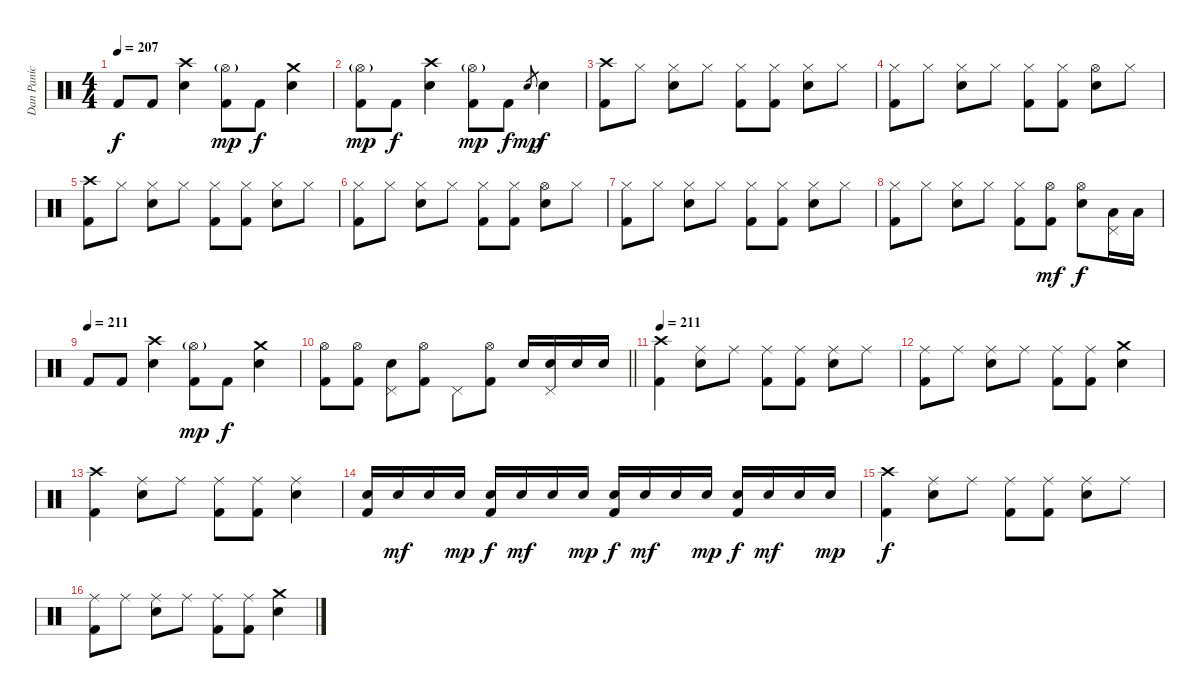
\track ("Dan Panic" "Dan Panic") {instrument percussion}
\staff {score}
\articulation defaults
\ts (4 4)
\tempo 207
\clef neutral
\ks c "Kick (hit) 2".8{dy f} "Kick (hit) 2".8
("Crash high (hit)" "Electric Snare (hit)").4 ("Hi-Hat (open)"{g} "Kick (hit) 2").8{dy mp} "Kick (hit) 2".8{dy f} ("Crash medium (hit)" "Electric Snare (hit)").4 |
("Hi-Hat (open)"{g} "Kick (hit) 2").8{dy mp} "Kick (hit) 2".8{dy f} ("Crash high (hit)" "Electric Snare (hit)").4 ("Hi-Hat (open)"{g} "Kick (hit) 2").8{dy mp} "Kick (hit) 2".8{dy f} "Electric Snare (hit)".8{gr dy mp} "Electric Snare (hit)".4{dy f} |
("Crash high (hit)" "Kick (hit) 2").8 "Hi-Hat (closed)".8 ("Hi-Hat (closed)" "Electric Snare (hit)").8 "Hi-Hat (closed)".8 ("Hi-Hat (closed)" "Kick (hit) 2").8 ("Hi-Hat (closed)" "Kick (hit) 2").8 ("Hi-Hat (closed)" "Electric Snare (hit)").8 "Hi-Hat (closed)".8 |
("Hi-Hat (closed)" "Kick (hit) 2").8 "Hi-Hat (closed)".8 ("Hi-Hat (closed)" "Electric Snare (hit)").8 "Hi-Hat (closed)".8 ("Hi-Hat (closed)" "Kick (hit) 2").8 ("Hi-Hat (closed)" "Kick (hit) 2").8 ("Hi-Hat (open)" "Electric Snare (hit)").8 "Hi-Hat (closed)".8 |
("Crash high (hit)" "Kick (hit) 2").8 "Hi-Hat (closed)".8 ("Hi-Hat (closed)" "Electric Snare (hit)").8 "Hi-Hat (closed)".8 ("Hi-Hat (closed)" "Kick (hit) 2").8 ("Hi-Hat (closed)" "Kick (hit) 2").8 ("Hi-Hat (closed)" "Electric Snare (hit)").8 "Hi-Hat (closed)".8 |
("Hi-Hat (closed)" "Kick (hit) 2").8 "Hi-Hat (closed)".8 ("Hi-Hat (closed)" "Electric Snare (hit)").8 "Hi-Hat (closed)".8 ("Hi-Hat (closed)" "Kick (hit) 2").8 ("Hi-Hat (closed)" "Kick (hit) 2").8 ("Hi-Hat (open)" "Electric Snare (hit)").8 "Hi-Hat (closed)".8 |
("Hi-Hat (closed)" "Kick (hit) 2").8 "Hi-Hat (closed)".8 ("Hi-Hat (closed)" "Electric Snare (hit)").8 "Hi-Hat (closed)".8 ("Hi-Hat (closed)" "Kick (hit) 2").8 ("Hi-Hat (closed)" "Kick (hit) 2").8 ("Hi-Hat (closed)" "Electric Snare (hit)").8 "Hi-Hat (closed)".8 |
("Hi-Hat (closed)" "Kick (hit) 2").8 "Hi-Hat (closed)".8 ("Hi-Hat (closed)" "Electric Snare (hit)").8 "Hi-Hat (closed)".8 ("Hi-Hat (closed)" "Kick (hit) 2").8 ("Hi-Hat (open)" "Kick (hit) 2").8{dy mf} ("Hi-Hat (open)" "Electric Snare (hit)").8{dy f} ("Pedal Hi-Hat (hit)" "Low Tom (hit)").16 "Low Floor Tom (hit)".16 |
\tempo (211)
"Kick (hit) 2".8 "Kick (hit) 2".8 ("Crash high (hit)" "Electric Snare (hit)").4 ("Hi-Hat (open)"{g} "Kick (hit) 2").8{dy mp} "Kick (hit) 2".8{dy f} ("Crash medium (hit)" "Electric Snare (hit)").4 |
\barLineRight lightlight
("Hi-Hat (open)" "Kick (hit) 2").8 ("Hi-Hat (open)" "Kick (hit) 2").8 ("Pedal Hi-Hat (hit)" "Electric Snare (hit)").8 ("Hi-Hat (open)" "Kick (hit) 2").8 "Pedal Hi-Hat (hit)".8 ("Hi-Hat (open)" "Kick (hit) 2").8 "Electric Snare (hit)".16 ("Pedal Hi-Hat (hit)" "Electric Snare (hit)").16 "Electric Snare (hit)".16 "Electric Snare (hit)".16 |
\section ("" "")
\tempo 211
("Crash high (hit)" "Kick (hit) 2").4 ("Ride (middle)" "Electric Snare (hit)").8 "Ride (middle)".8 ("Ride (middle)" "Kick (hit) 2").8 ("Ride (middle)" "Kick (hit) 2").8 ("Ride (middle)" "Electric Snare (hit)").8 "Ride (middle)".8 |
("Ride (middle)" "Kick (hit) 2").8 "Ride (middle)".8 ("Ride (middle)" "Electric Snare (hit)").8 "Ride (middle)".8 ("Ride (middle)" "Kick (hit) 2").8 ("Ride (middle)" "Kick (hit) 2").8 ("Crash medium (hit)" "Electric Snare (hit)").4 |
("Crash high (hit)" "Kick (hit) 2").4 ("Ride (middle)" "Electric Snare (hit)").8 "Ride (middle)".8 ("Ride (middle)" "Kick (hit) 2").8 ("Ride (middle)" "Kick (hit) 2").8 ("Ride (middle)" "Electric Snare (hit)").4 |
("Electric Snare (hit)" "Kick (hit) 2").16 "Electric Snare (hit)".16{dy mf} "Electric Snare (hit)".16 "Electric Snare (hit)".16{dy mp} ("Electric Snare (hit)" "Kick (hit) 2").16{dy f} "Electric Snare (hit)".16{dy mf} "Electric Snare (hit)".16 "Electric Snare (hit)".16{dy mp} ("Electric Snare (hit)" "Kick (hit) 2").16{dy f} "Electric Snare (hit)".16{dy mf} "Electric Snare (hit)".16 "Electric Snare (hit)".16{dy mp} ("Electric Snare (hit)" "Kick (hit) 2").16{dy f} "Electric Snare (hit)".16{dy mf} "Electric Snare (hit)".16 "Electric Snare (hit)".16{dy mp} |
("Crash high (hit)" "Kick (hit) 2").4{dy f} ("Ride (middle)" "Electric Snare (hit)").8 "Ride (middle)".8 ("Ride (middle)" "Kick (hit) 2").8 ("Ride (middle)" "Kick (hit) 2").8 ("Ride (middle)" "Electric Snare (hit)").8 "Ride (middle)".8 |
("Ride (middle)" "Kick (hit) 2").8 "Ride (middle)".8 ("Ride (middle)" "Electric Snare (hit)").8 "Ride (middle)".8 ("Ride (middle)" "Kick (hit) 2").8 ("Ride (middle)" "Kick (hit) 2").8 ("Crash medium (hit)" "Electric Snare (hit)").4
